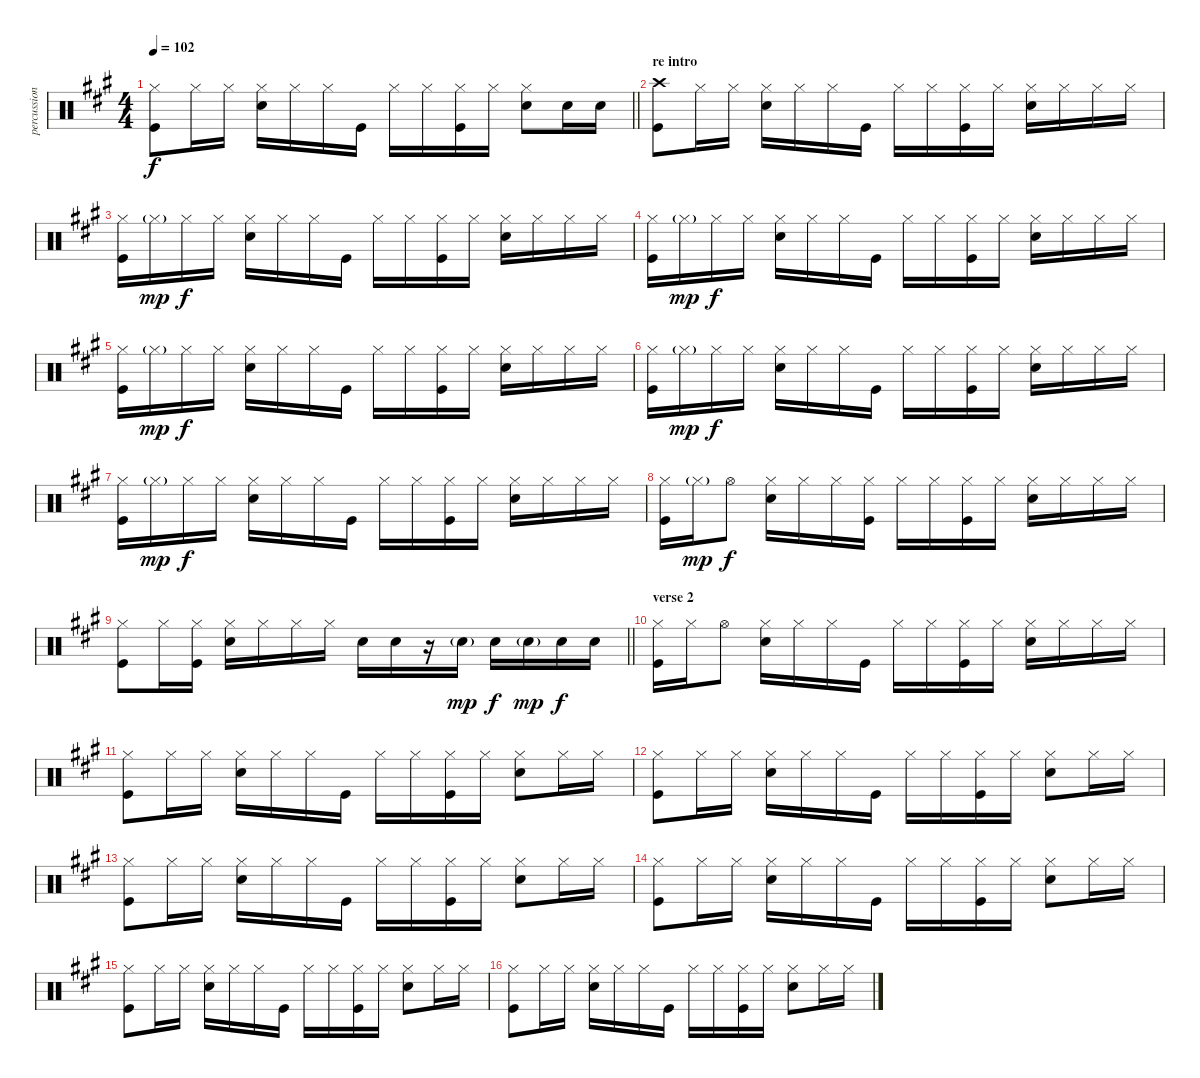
\track ("percussion" "percussion") {instrument percussion}
\staff {score}
\articulation defaults
\ts (4 4)
\tempo 102
\clef neutral
\barLineRight lightlight
\ks a
("Hi-Hat (closed)" "Kick (hit)").8{dy f} "Hi-Hat (closed)".16 "Hi-Hat (closed)".16 ("Electric Snare (hit)" "Hi-Hat (closed)").16 "Hi-Hat (closed)".16 "Hi-Hat (closed)".16 "Kick (hit)".16 "Hi-Hat (closed)".16 "Hi-Hat (closed)".16 ("Hi-Hat (closed)" "Kick (hit)").16 "Hi-Hat (closed)".16 ("Electric Snare (hit)" "Hi-Hat (closed)").8 "Electric Snare (hit)".16 "Electric Snare (hit)".16 |
\section ("" "re intro")
("Crash high (hit)" "Kick (hit)").8 "Hi-Hat (closed)".16 "Hi-Hat (closed)".16 ("Electric Snare (hit)" "Hi-Hat (closed)").16 "Hi-Hat (closed)".16 "Hi-Hat (closed)".16 "Kick (hit)".16 "Hi-Hat (closed)".16 "Hi-Hat (closed)".16 ("Hi-Hat (closed)" "Kick (hit)").16 "Hi-Hat (closed)".16 ("Electric Snare (hit)" "Hi-Hat (closed)").16 "Hi-Hat (closed)".16 "Hi-Hat (closed)".16 "Hi-Hat (closed)".16 |
("Hi-Hat (closed)" "Kick (hit)").16 "Hi-Hat (closed)"{g}.16{dy mp} "Hi-Hat (closed)".16{dy f} "Hi-Hat (closed)".16 ("Electric Snare (hit)" "Hi-Hat (closed)").16 "Hi-Hat (closed)".16 "Hi-Hat (closed)".16 "Kick (hit)".16 "Hi-Hat (closed)".16 "Hi-Hat (closed)".16 ("Hi-Hat (closed)" "Kick (hit)").16 "Hi-Hat (closed)".16 ("Electric Snare (hit)" "Hi-Hat (closed)").16 "Hi-Hat (closed)".16 "Hi-Hat (closed)".16 "Hi-Hat (closed)".16 |
("Hi-Hat (closed)" "Kick (hit)").16 "Hi-Hat (closed)"{g}.16{dy mp} "Hi-Hat (closed)".16{dy f} "Hi-Hat (closed)".16 ("Electric Snare (hit)" "Hi-Hat (closed)").16 "Hi-Hat (closed)".16 "Hi-Hat (closed)".16 "Kick (hit)".16 "Hi-Hat (closed)".16 "Hi-Hat (closed)".16 ("Hi-Hat (closed)" "Kick (hit)").16 "Hi-Hat (closed)".16 ("Electric Snare (hit)" "Hi-Hat (closed)").16 "Hi-Hat (closed)".16 "Hi-Hat (closed)".16 "Hi-Hat (closed)".16 |
("Hi-Hat (closed)" "Kick (hit)").16 "Hi-Hat (closed)"{g}.16{dy mp} "Hi-Hat (closed)".16{dy f} "Hi-Hat (closed)".16 ("Electric Snare (hit)" "Hi-Hat (closed)").16 "Hi-Hat (closed)".16 "Hi-Hat (closed)".16 "Kick (hit)".16 "Hi-Hat (closed)".16 "Hi-Hat (closed)".16 ("Hi-Hat (closed)" "Kick (hit)").16 "Hi-Hat (closed)".16 ("Electric Snare (hit)" "Hi-Hat (closed)").16 "Hi-Hat (closed)".16 "Hi-Hat (closed)".16 "Hi-Hat (closed)".16 |
("Hi-Hat (closed)" "Kick (hit)").16 "Hi-Hat (closed)"{g}.16{dy mp} "Hi-Hat (closed)".16{dy f} "Hi-Hat (closed)".16 ("Electric Snare (hit)" "Hi-Hat (closed)").16 "Hi-Hat (closed)".16 "Hi-Hat (closed)".16 "Kick (hit)".16 "Hi-Hat (closed)".16 "Hi-Hat (closed)".16 ("Hi-Hat (closed)" "Kick (hit)").16 "Hi-Hat (closed)".16 ("Electric Snare (hit)" "Hi-Hat (closed)").16 "Hi-Hat (closed)".16 "Hi-Hat (closed)".16 "Hi-Hat (closed)".16 |
("Hi-Hat (closed)" "Kick (hit)").16 "Hi-Hat (closed)"{g}.16{dy mp} "Hi-Hat (closed)".16{dy f} "Hi-Hat (closed)".16 ("Electric Snare (hit)" "Hi-Hat (closed)").16 "Hi-Hat (closed)".16 "Hi-Hat (closed)".16 "Kick (hit)".16 "Hi-Hat (closed)".16 "Hi-Hat (closed)".16 ("Hi-Hat (closed)" "Kick (hit)").16 "Hi-Hat (closed)".16 ("Electric Snare (hit)" "Hi-Hat (closed)").16 "Hi-Hat (closed)".16 "Hi-Hat (closed)".16 "Hi-Hat (closed)".16 |
("Hi-Hat (closed)" "Kick (hit)").16 "Hi-Hat (closed)"{g}.16{dy mp} "Hi-Hat (open)".8{dy f} ("Electric Snare (hit)" "Hi-Hat (closed)").16 "Hi-Hat (closed)".16 "Hi-Hat (closed)".16 ("Hi-Hat (closed)" "Kick (hit)").16 "Hi-Hat (closed)".16 "Hi-Hat (closed)".16 ("Hi-Hat (closed)" "Kick (hit)").16 "Hi-Hat (closed)".16 ("Electric Snare (hit)" "Hi-Hat (closed)").16 "Hi-Hat (closed)".16 "Hi-Hat (closed)".16 "Hi-Hat (closed)".16 |
\barLineRight lightlight
("Hi-Hat (closed)" "Kick (hit)").8 "Hi-Hat (closed)".16 ("Hi-Hat (closed)" "Kick (hit)").16 ("Electric Snare (hit)" "Hi-Hat (closed)").16 "Hi-Hat (closed)".16 "Hi-Hat (closed)".16 "Hi-Hat (closed)".16 "Electric Snare (hit)".16 "Electric Snare (hit)".16 r.16 "Electric Snare (hit)"{g}.16{dy mp} "Electric Snare (hit)".16{dy f} "Electric Snare (hit)"{g}.16{dy mp} "Electric Snare (hit)".16{dy f} "Electric Snare (hit)".16 |
\section ("" "verse 2")
("Hi-Hat (closed)" "Kick (hit)").16 "Hi-Hat (closed)".16 "Hi-Hat (open)".8 ("Electric Snare (hit)" "Hi-Hat (closed)").16 "Hi-Hat (closed)".16 "Hi-Hat (closed)".16 "Kick (hit)".16 "Hi-Hat (closed)".16 "Hi-Hat (closed)".16 ("Hi-Hat (closed)" "Kick (hit)").16 "Hi-Hat (closed)".16 ("Electric Snare (hit)" "Hi-Hat (closed)").16 "Hi-Hat (closed)".16 "Hi-Hat (closed)".16 "Hi-Hat (closed)".16 |
("Hi-Hat (closed)" "Kick (hit)").8 "Hi-Hat (closed)".16 "Hi-Hat (closed)".16 ("Electric Snare (hit)" "Hi-Hat (closed)").16 "Hi-Hat (closed)".16 "Hi-Hat (closed)".16 "Kick (hit)".16 "Hi-Hat (closed)".16 "Hi-Hat (closed)".16 ("Hi-Hat (closed)" "Kick (hit)").16 "Hi-Hat (closed)".16 ("Electric Snare (hit)" "Hi-Hat (closed)").8 "Hi-Hat (closed)".16 "Hi-Hat (closed)".16 |
("Hi-Hat (closed)" "Kick (hit)").8 "Hi-Hat (closed)".16 "Hi-Hat (closed)".16 ("Electric Snare (hit)" "Hi-Hat (closed)").16 "Hi-Hat (closed)".16 "Hi-Hat (closed)".16 "Kick (hit)".16 "Hi-Hat (closed)".16 "Hi-Hat (closed)".16 ("Hi-Hat (closed)" "Kick (hit)").16 "Hi-Hat (closed)".16 ("Electric Snare (hit)" "Hi-Hat (closed)").8 "Hi-Hat (closed)".16 "Hi-Hat (closed)".16 |
("Hi-Hat (closed)" "Kick (hit)").8 "Hi-Hat (closed)".16 "Hi-Hat (closed)".16 ("Electric Snare (hit)" "Hi-Hat (closed)").16 "Hi-Hat (closed)".16 "Hi-Hat (closed)".16 "Kick (hit)".16 "Hi-Hat (closed)".16 "Hi-Hat (closed)".16 ("Hi-Hat (closed)" "Kick (hit)").16 "Hi-Hat (closed)".16 ("Electric Snare (hit)" "Hi-Hat (closed)").8 "Hi-Hat (closed)".16 "Hi-Hat (closed)".16 |
("Hi-Hat (closed)" "Kick (hit)").8 "Hi-Hat (closed)".16 "Hi-Hat (closed)".16 ("Electric Snare (hit)" "Hi-Hat (closed)").16 "Hi-Hat (closed)".16 "Hi-Hat (closed)".16 "Kick (hit)".16 "Hi-Hat (closed)".16 "Hi-Hat (closed)".16 ("Hi-Hat (closed)" "Kick (hit)").16 "Hi-Hat (closed)".16 ("Electric Snare (hit)" "Hi-Hat (closed)").8 "Hi-Hat (closed)".16 "Hi-Hat (closed)".16 |
("Hi-Hat (closed)" "Kick (hit)").8 "Hi-Hat (closed)".16 "Hi-Hat (closed)".16 ("Electric Snare (hit)" "Hi-Hat (closed)").16 "Hi-Hat (closed)".16 "Hi-Hat (closed)".16 "Kick (hit)".16 "Hi-Hat (closed)".16 "Hi-Hat (closed)".16 ("Hi-Hat (closed)" "Kick (hit)").16 "Hi-Hat (closed)".16 ("Electric Snare (hit)" "Hi-Hat (closed)").8 "Hi-Hat (closed)".16 "Hi-Hat (closed)".16 |
("Hi-Hat (closed)" "Kick (hit)").8 "Hi-Hat (closed)".16 "Hi-Hat (closed)".16 ("Electric Snare (hit)" "Hi-Hat (closed)").16 "Hi-Hat (closed)".16 "Hi-Hat (closed)".16 "Kick (hit)".16 "Hi-Hat (closed)".16 "Hi-Hat (closed)".16 ("Hi-Hat (closed)" "Kick (hit)").16 "Hi-Hat (closed)".16 ("Electric Snare (hit)" "Hi-Hat (closed)").8 "Hi-Hat (closed)".16 "Hi-Hat (closed)".16
